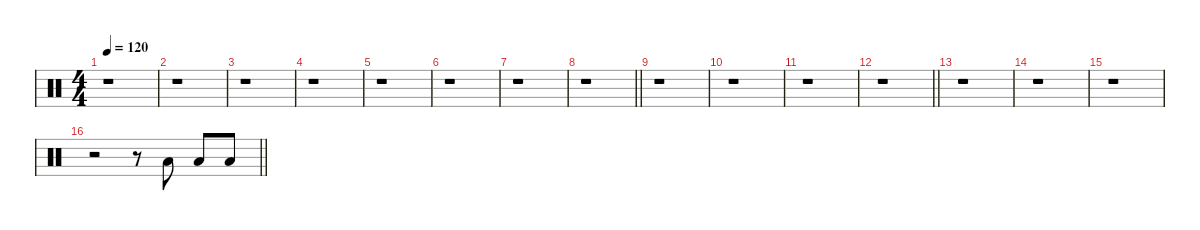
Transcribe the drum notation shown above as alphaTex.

\defaultSystemsLayout 4
\hideDynamics
\bracketExtendMode nobrackets
\singleTrackTrackNamePolicy hidden
\multiTrackTrackNamePolicy hidden
\firstSystemTrackNameMode fullname
\firstSystemTrackNameOrientation horizontal
\otherSystemsTrackNameOrientation horizontal
\track ("Percussions" "drm.") {instrument percussion}
\staff {score}
\articulation defaults
\ts (4 4)
\tempo 120
\clef neutral
\ks c
r.1{dy fff beam Down} |
r.1{beam Down} |
r.1{beam Down} |
r.1{beam Down} |
r.1{beam Down} |
r.1{beam Down} |
r.1{beam Down} |
\barLineRight lightlight
r.1{beam Down} |
r.1{beam Down} |
r.1{beam Down} |
r.1{beam Down} |
\barLineRight lightlight
r.1{beam Down} |
r.1{beam Down} |
r.1{beam Down} |
r.1{beam Down} |
\barLineRight lightlight
r.2{beam Down} r.8{beam Down} "Low Floor Tom (hit)".8{beam Up} "Low Floor Tom (hit)".8{beam Up} "Low Floor Tom (hit)".8{beam Up}
